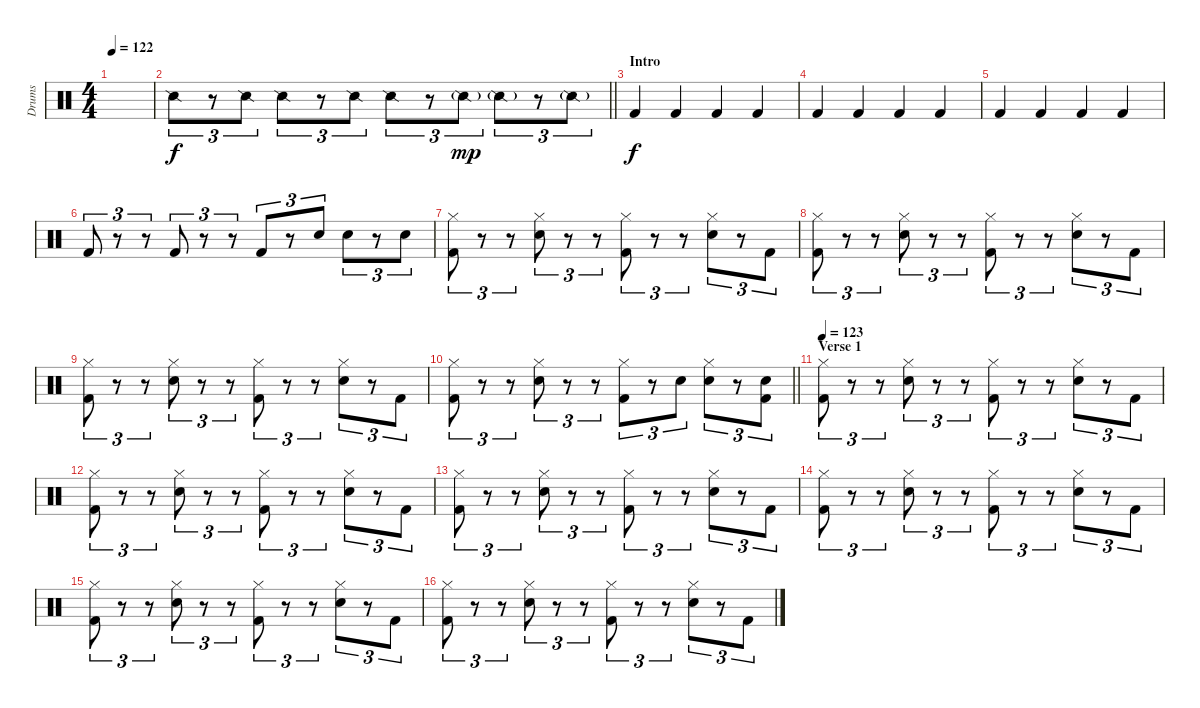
\track ("Drums" "Drums") {instrument percussion}
\staff {score}
\articulation defaults
\ts (4 4)
\tempo 122
\clef neutral
\ks c
|
\barLineRight lightlight "Snare (side stick) 2".8{tu (3 2)}
r.8{tu (3 2)} "Snare (side stick) 2".8{tu (3 2)} "Snare (side stick) 2".8{tu (3 2)} r.8{tu (3 2)} "Snare (side stick) 2".8{tu (3 2)} "Snare (side stick) 2".8{tu (3 2)} r.8{tu (3 2)} "Snare (side stick) 2"{g}.8{tu (3 2) dy mp} "Snare (side stick) 2"{g}.8{tu (3 2)} r.8{tu (3 2)} "Snare (side stick) 2"{g}.8{tu (3 2)} |
\section ("" "Intro")
"Kick (hit) 2".4{dy f} "Kick (hit) 2".4 "Kick (hit) 2".4 "Kick (hit) 2".4 |
"Kick (hit) 2".4 "Kick (hit) 2".4 "Kick (hit) 2".4 "Kick (hit) 2".4 |
"Kick (hit) 2".4 "Kick (hit) 2".4 "Kick (hit) 2".4 "Kick (hit) 2".4 |
"Kick (hit) 2".8{tu (3 2)} r.8{tu (3 2)} r.8{tu (3 2)} "Kick (hit) 2".8{tu (3 2)} r.8{tu (3 2)} r.8{tu (3 2)} "Kick (hit) 2".8{tu (3 2)} r.8{tu (3 2)} "Snare (hit) 2".8{tu (3 2)} "Snare (hit) 2".8{tu (3 2)} r.8{tu (3 2)} "Snare (hit) 2".8{tu (3 2)} |
("Hi-Hat (closed)" "Kick (hit) 2").8{tu (3 2)} r.8{tu (3 2)} r.8{tu (3 2)} ("Hi-Hat (closed)" "Snare (hit) 2").8{tu (3 2)} r.8{tu (3 2)} r.8{tu (3 2)} ("Hi-Hat (closed)" "Kick (hit) 2").8{tu (3 2)} r.8{tu (3 2)} r.8{tu (3 2)} ("Hi-Hat (closed)" "Snare (hit) 2").8{tu (3 2)} r.8{tu (3 2)} "Kick (hit) 2".8{tu (3 2)} |
("Hi-Hat (closed)" "Kick (hit) 2").8{tu (3 2)} r.8{tu (3 2)} r.8{tu (3 2)} ("Hi-Hat (closed)" "Snare (hit) 2").8{tu (3 2)} r.8{tu (3 2)} r.8{tu (3 2)} ("Hi-Hat (closed)" "Kick (hit) 2").8{tu (3 2)} r.8{tu (3 2)} r.8{tu (3 2)} ("Hi-Hat (closed)" "Snare (hit) 2").8{tu (3 2)} r.8{tu (3 2)} "Kick (hit) 2".8{tu (3 2)} |
("Hi-Hat (closed)" "Kick (hit) 2").8{tu (3 2)} r.8{tu (3 2)} r.8{tu (3 2)} ("Hi-Hat (closed)" "Snare (hit) 2").8{tu (3 2)} r.8{tu (3 2)} r.8{tu (3 2)} ("Hi-Hat (closed)" "Kick (hit) 2").8{tu (3 2)} r.8{tu (3 2)} r.8{tu (3 2)} ("Hi-Hat (closed)" "Snare (hit) 2").8{tu (3 2)} r.8{tu (3 2)} "Kick (hit) 2".8{tu (3 2)} |
\barLineRight lightlight
("Hi-Hat (closed)" "Kick (hit) 2").8{tu (3 2)} r.8{tu (3 2)} r.8{tu (3 2)} ("Hi-Hat (closed)" "Snare (hit) 2").8{tu (3 2)} r.8{tu (3 2)} r.8{tu (3 2)} ("Hi-Hat (closed)" "Kick (hit) 2").8{tu (3 2)} r.8{tu (3 2)} "Snare (hit) 2".8{tu (3 2)} ("Hi-Hat (closed)" "Snare (hit) 2").8{tu (3 2)} r.8{tu (3 2)} ("Snare (hit) 2" "Kick (hit) 2").8{tu (3 2)} |
\section ("" "Verse 1")
\tempo 123
("Hi-Hat (closed)" "Kick (hit) 2").8{tu (3 2)} r.8{tu (3 2)} r.8{tu (3 2)} ("Hi-Hat (closed)" "Snare (hit) 2").8{tu (3 2)} r.8{tu (3 2)} r.8{tu (3 2)} ("Hi-Hat (closed)" "Kick (hit) 2").8{tu (3 2)} r.8{tu (3 2)} r.8{tu (3 2)} ("Hi-Hat (closed)" "Snare (hit) 2").8{tu (3 2)} r.8{tu (3 2)} "Kick (hit) 2".8{tu (3 2)} |
("Hi-Hat (closed)" "Kick (hit) 2").8{tu (3 2)} r.8{tu (3 2)} r.8{tu (3 2)} ("Hi-Hat (closed)" "Snare (hit) 2").8{tu (3 2)} r.8{tu (3 2)} r.8{tu (3 2)} ("Hi-Hat (closed)" "Kick (hit) 2").8{tu (3 2)} r.8{tu (3 2)} r.8{tu (3 2)} ("Hi-Hat (closed)" "Snare (hit) 2").8{tu (3 2)} r.8{tu (3 2)} "Kick (hit) 2".8{tu (3 2)} |
("Hi-Hat (closed)" "Kick (hit) 2").8{tu (3 2)} r.8{tu (3 2)} r.8{tu (3 2)} ("Hi-Hat (closed)" "Snare (hit) 2").8{tu (3 2)} r.8{tu (3 2)} r.8{tu (3 2)} ("Hi-Hat (closed)" "Kick (hit) 2").8{tu (3 2)} r.8{tu (3 2)} r.8{tu (3 2)} ("Hi-Hat (closed)" "Snare (hit) 2").8{tu (3 2)} r.8{tu (3 2)} "Kick (hit) 2".8{tu (3 2)} |
("Hi-Hat (closed)" "Kick (hit) 2").8{tu (3 2)} r.8{tu (3 2)} r.8{tu (3 2)} ("Hi-Hat (closed)" "Snare (hit) 2").8{tu (3 2)} r.8{tu (3 2)} r.8{tu (3 2)} ("Hi-Hat (closed)" "Kick (hit) 2").8{tu (3 2)} r.8{tu (3 2)} r.8{tu (3 2)} ("Hi-Hat (closed)" "Snare (hit) 2").8{tu (3 2)} r.8{tu (3 2)} "Kick (hit) 2".8{tu (3 2)} |
("Hi-Hat (closed)" "Kick (hit) 2").8{tu (3 2)} r.8{tu (3 2)} r.8{tu (3 2)} ("Hi-Hat (closed)" "Snare (hit) 2").8{tu (3 2)} r.8{tu (3 2)} r.8{tu (3 2)} ("Hi-Hat (closed)" "Kick (hit) 2").8{tu (3 2)} r.8{tu (3 2)} r.8{tu (3 2)} ("Hi-Hat (closed)" "Snare (hit) 2").8{tu (3 2)} r.8{tu (3 2)} "Kick (hit) 2".8{tu (3 2)} |
("Hi-Hat (closed)" "Kick (hit) 2").8{tu (3 2)} r.8{tu (3 2)} r.8{tu (3 2)} ("Hi-Hat (closed)" "Snare (hit) 2").8{tu (3 2)} r.8{tu (3 2)} r.8{tu (3 2)} ("Hi-Hat (closed)" "Kick (hit) 2").8{tu (3 2)} r.8{tu (3 2)} r.8{tu (3 2)} ("Hi-Hat (closed)" "Snare (hit) 2").8{tu (3 2)} r.8{tu (3 2)} "Kick (hit) 2".8{tu (3 2)}
